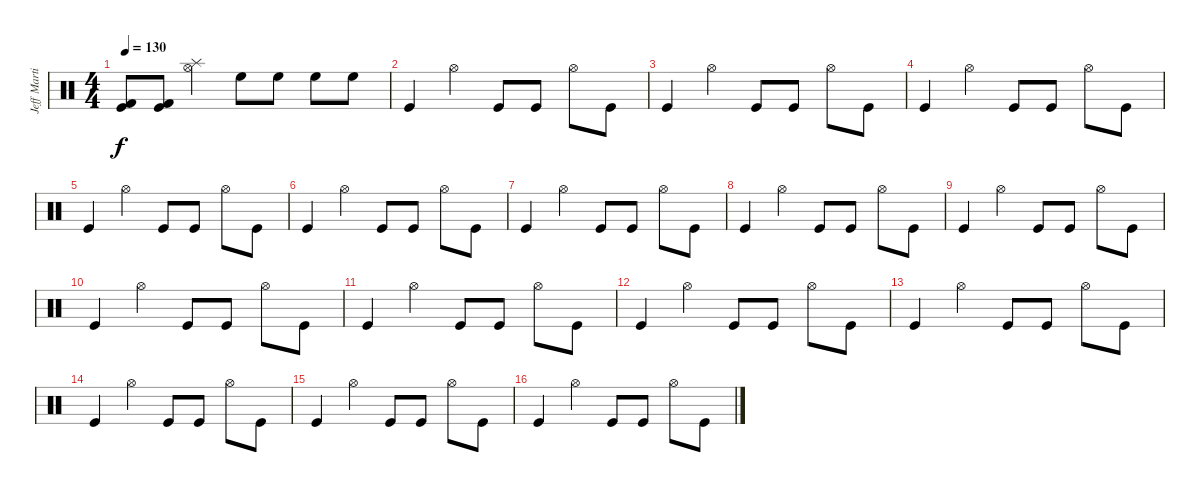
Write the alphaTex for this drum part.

\track ("Jeff Martin" "Jeff Marti") {instrument percussion}
\staff {score}
\articulation defaults
\ts (4 4)
\tempo 130
\clef neutral
\ks c
("Kick (hit) 2" "Kick (hit)").8{dy f} ("Kick (hit) 2" "Kick (hit)").8 ("Splash (hit)" "Hi-Hat (open)").4 "High Floor Tom (hit)".8 "High Floor Tom (hit)".8 "High Floor Tom (hit)".8 "High Floor Tom (hit)".8 |
"Kick (hit)".4 "Hi-Hat (open)".4 "Kick (hit)".8 "Kick (hit)".8 "Hi-Hat (open)".8 "Kick (hit)".8 |
"Kick (hit)".4 "Hi-Hat (open)".4 "Kick (hit)".8 "Kick (hit)".8 "Hi-Hat (open)".8 "Kick (hit)".8 |
"Kick (hit)".4 "Hi-Hat (open)".4 "Kick (hit)".8 "Kick (hit)".8 "Hi-Hat (open)".8 "Kick (hit)".8 |
"Kick (hit)".4 "Hi-Hat (open)".4 "Kick (hit)".8 "Kick (hit)".8 "Hi-Hat (open)".8 "Kick (hit)".8 |
"Kick (hit)".4 "Hi-Hat (open)".4 "Kick (hit)".8 "Kick (hit)".8 "Hi-Hat (open)".8 "Kick (hit)".8 |
"Kick (hit)".4 "Hi-Hat (open)".4 "Kick (hit)".8 "Kick (hit)".8 "Hi-Hat (open)".8 "Kick (hit)".8 |
"Kick (hit)".4 "Hi-Hat (open)".4 "Kick (hit)".8 "Kick (hit)".8 "Hi-Hat (open)".8 "Kick (hit)".8 |
"Kick (hit)".4 "Hi-Hat (open)".4 "Kick (hit)".8 "Kick (hit)".8 "Hi-Hat (open)".8 "Kick (hit)".8 |
"Kick (hit)".4 "Hi-Hat (open)".4 "Kick (hit)".8 "Kick (hit)".8 "Hi-Hat (open)".8 "Kick (hit)".8 |
"Kick (hit)".4 "Hi-Hat (open)".4 "Kick (hit)".8 "Kick (hit)".8 "Hi-Hat (open)".8 "Kick (hit)".8 |
"Kick (hit)".4 "Hi-Hat (open)".4 "Kick (hit)".8 "Kick (hit)".8 "Hi-Hat (open)".8 "Kick (hit)".8 |
"Kick (hit)".4 "Hi-Hat (open)".4 "Kick (hit)".8 "Kick (hit)".8 "Hi-Hat (open)".8 "Kick (hit)".8 |
"Kick (hit)".4 "Hi-Hat (open)".4 "Kick (hit)".8 "Kick (hit)".8 "Hi-Hat (open)".8 "Kick (hit)".8 |
"Kick (hit)".4 "Hi-Hat (open)".4 "Kick (hit)".8 "Kick (hit)".8 "Hi-Hat (open)".8 "Kick (hit)".8 |
"Kick (hit)".4 "Hi-Hat (open)".4 "Kick (hit)".8 "Kick (hit)".8 "Hi-Hat (open)".8 "Kick (hit)".8
